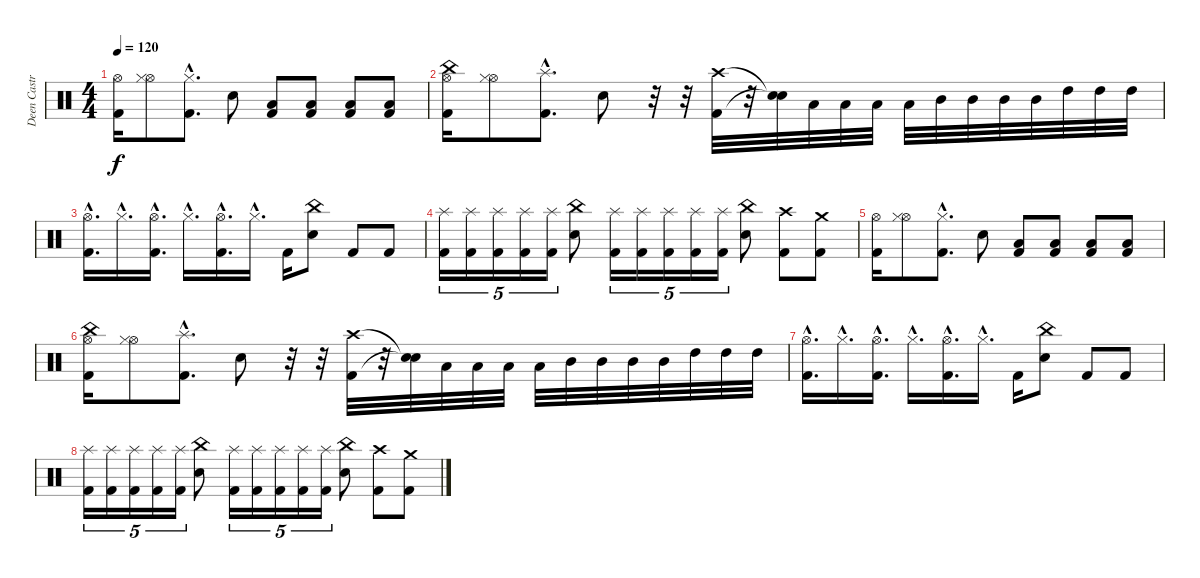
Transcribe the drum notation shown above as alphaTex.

\track ("Deen Castronovo" "Deen Castr") {instrument percussion}
\staff {score}
\articulation defaults
\ts (4 4)
\tempo 120
\clef neutral
\ks c
("Kick (hit) 2" "Hi-Hat (open)").16{dy f} ("Hi-Hat (open)" "Hi-Hat (closed)").8 ("Kick (hit) 2"{hac} "Hi-Hat (closed)"{hac}).8{d} "Electric Snare (hit)".8 ("Low Floor Tom (hit)" "Kick (hit) 2").8 ("Low Floor Tom (hit)" "Kick (hit) 2").8 ("Low Floor Tom (hit)" "Kick (hit) 2").8 ("Low Floor Tom (hit)" "Kick (hit) 2").8 |
("Kick (hit) 2" "Hi-Hat (open)" "China (hit)").16 ("Hi-Hat (open)" "Hi-Hat (closed)").8 ("Kick (hit) 2"{hac} "Splash (hit)"{hac}).8{d} "Electric Snare (hit)".8 r.32 r.32 ("Kick (hit) 2" "Crash high (hit)").32 r.32 ("Snare (hit)"{t} "Snare (hit)"{t}).32 "Low Tom (hit)".32 "Low Tom (hit)".32 "Low Tom (hit)".32 "Low Tom (hit)".32 "Mid Tom (hit)".32 "Mid Tom (hit)".32 "Mid Tom (hit)".32 "Mid Tom (hit)".32 "High Tom (hit)".32 "High Tom (hit)".32 "High Tom (hit)".32 |
("Kick (hit) 2"{hac} "Hi-Hat (open)"{hac}).16{d} "Hi-Hat (closed)"{hac}.16{d} ("Kick (hit) 2"{hac} "Hi-Hat (open)"{hac}).16{d} "Hi-Hat (closed)"{hac}.16{d} ("Kick (hit) 2"{hac} "Hi-Hat (open)"{hac}).16{d} "Hi-Hat (closed)"{hac}.16{d} "Kick (hit) 2".16 ("Electric Snare (hit)" "China (hit)").8 "Kick (hit) 2".8 "Kick (hit) 2".8 |
("Kick (hit) 2" "Splash (hit)").16{tu (5 4)} ("Kick (hit) 2" "Splash (hit)").16{tu (5 4)} ("Kick (hit) 2" "Splash (hit)").16{tu (5 4)} ("Kick (hit) 2" "Splash (hit)").16{tu (5 4)} ("Kick (hit) 2" "Splash (hit)").16{tu (5 4)} ("Electric Snare (hit)" "China (hit)").8 ("Kick (hit) 2" "Splash (hit)").16{tu (5 4)} ("Kick (hit) 2" "Splash (hit)").16{tu (5 4)} ("Kick (hit) 2" "Splash (hit)").16{tu (5 4)} ("Kick (hit) 2" "Splash (hit)").16{tu (5 4)} ("Kick (hit) 2" "Splash (hit)").16{tu (5 4)} ("Electric Snare (hit)" "China (hit)").8 ("Kick (hit) 2" "Crash high (hit)").8 ("Kick (hit) 2" "Crash medium (hit)").8 |
("Kick (hit) 2" "Hi-Hat (open)").16 ("Hi-Hat (open)" "Hi-Hat (closed)").8 ("Kick (hit) 2"{hac} "Hi-Hat (closed)"{hac}).8{d} "Electric Snare (hit)".8 ("Low Floor Tom (hit)" "Kick (hit) 2").8 ("Low Floor Tom (hit)" "Kick (hit) 2").8 ("Low Floor Tom (hit)" "Kick (hit) 2").8 ("Low Floor Tom (hit)" "Kick (hit) 2").8 |
("Kick (hit) 2" "Hi-Hat (open)" "China (hit)").16 ("Hi-Hat (open)" "Hi-Hat (closed)").8 ("Kick (hit) 2"{hac} "Splash (hit)"{hac}).8{d} "Electric Snare (hit)".8 r.32 r.32 ("Kick (hit) 2" "Crash high (hit)").32 r.32 ("Snare (hit)"{t} "Snare (hit)"{t}).32 "Low Tom (hit)".32 "Low Tom (hit)".32 "Low Tom (hit)".32 "Low Tom (hit)".32 "Mid Tom (hit)".32 "Mid Tom (hit)".32 "Mid Tom (hit)".32 "Mid Tom (hit)".32 "High Tom (hit)".32 "High Tom (hit)".32 "High Tom (hit)".32 |
("Kick (hit) 2"{hac} "Hi-Hat (open)"{hac}).16{d} "Hi-Hat (closed)"{hac}.16{d} ("Kick (hit) 2"{hac} "Hi-Hat (open)"{hac}).16{d} "Hi-Hat (closed)"{hac}.16{d} ("Kick (hit) 2"{hac} "Hi-Hat (open)"{hac}).16{d} "Hi-Hat (closed)"{hac}.16{d} "Kick (hit) 2".16 ("Electric Snare (hit)" "China (hit)").8 "Kick (hit) 2".8 "Kick (hit) 2".8 |
("Kick (hit) 2" "Splash (hit)").16{tu (5 4)} ("Kick (hit) 2" "Splash (hit)").16{tu (5 4)} ("Kick (hit) 2" "Splash (hit)").16{tu (5 4)} ("Kick (hit) 2" "Splash (hit)").16{tu (5 4)} ("Kick (hit) 2" "Splash (hit)").16{tu (5 4)} ("Electric Snare (hit)" "China (hit)").8 ("Kick (hit) 2" "Splash (hit)").16{tu (5 4)} ("Kick (hit) 2" "Splash (hit)").16{tu (5 4)} ("Kick (hit) 2" "Splash (hit)").16{tu (5 4)} ("Kick (hit) 2" "Splash (hit)").16{tu (5 4)} ("Kick (hit) 2" "Splash (hit)").16{tu (5 4)} ("Electric Snare (hit)" "China (hit)").8 ("Kick (hit) 2" "Crash high (hit)").8 ("Kick (hit) 2" "Crash medium (hit)").8
